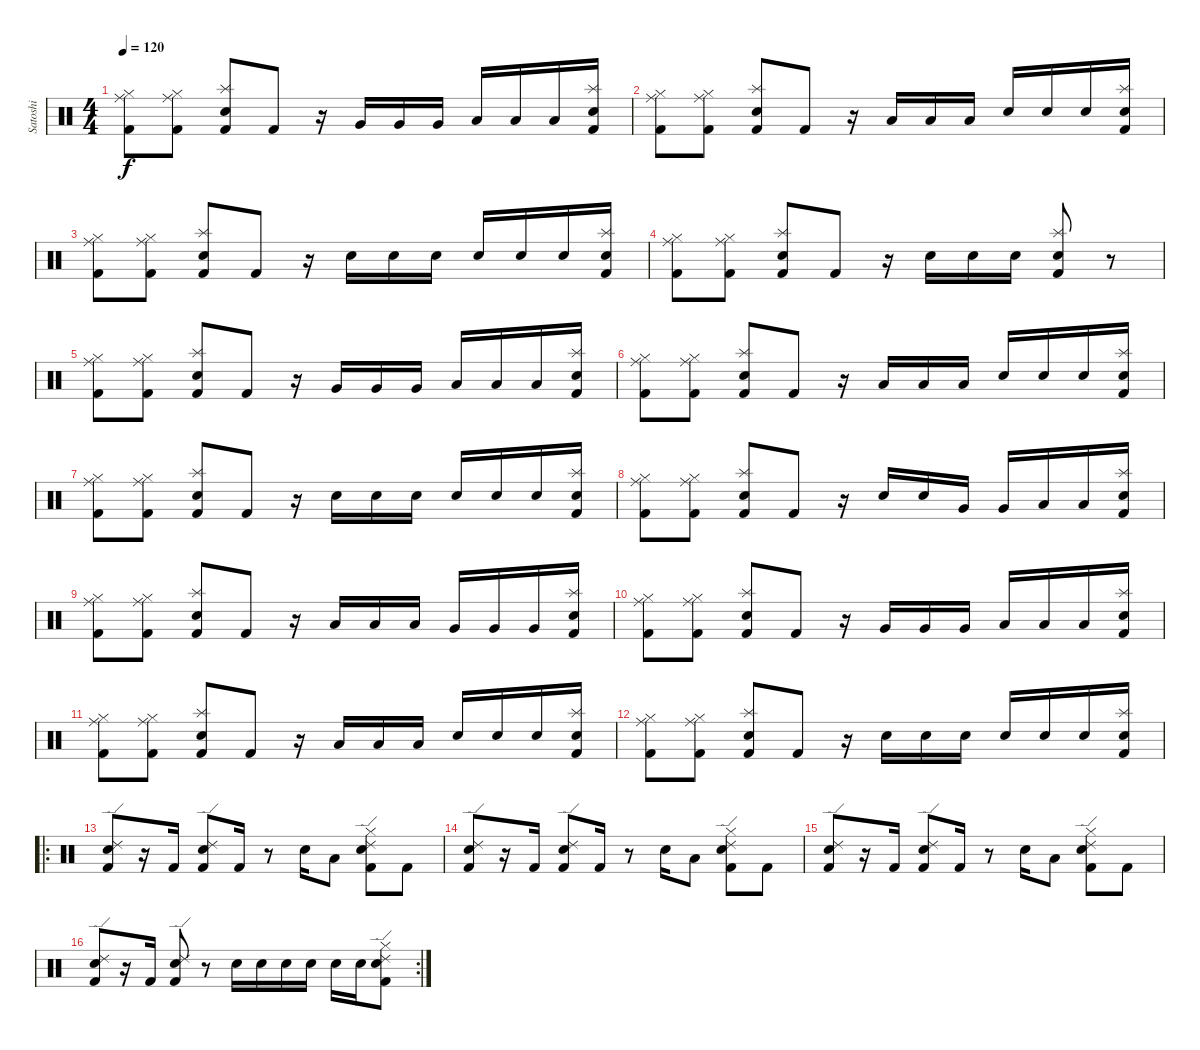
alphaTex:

\track ("Satoshi" "Satoshi") {instrument percussion}
\staff {score}
\articulation defaults
\ts (4 4)
\tempo 120
\clef neutral
\ks c
("Ride (middle)" "Hi-Hat (closed)" "Kick (hit) 2").8{dy f} ("Ride (middle)" "Hi-Hat (closed)" "Kick (hit) 2").8 ("Splash (hit)" "Electric Snare (hit)" "Kick (hit) 2").8 "Kick (hit) 2".8 r.16 "Very Low Tom (hit)".16 "Very Low Tom (hit)".16 "Very Low Tom (hit)".16 "Low Floor Tom (hit)".16 "Low Floor Tom (hit)".16 "Low Floor Tom (hit)".16 ("Splash (hit)" "Electric Snare (hit)" "Kick (hit) 2").16 |
("Ride (middle)" "Hi-Hat (closed)" "Kick (hit) 2").8 ("Ride (middle)" "Hi-Hat (closed)" "Kick (hit) 2").8 ("Splash (hit)" "Electric Snare (hit)" "Kick (hit) 2").8 "Kick (hit) 2".8 r.16 "Low Floor Tom (hit)".16 "Low Floor Tom (hit)".16 "Low Floor Tom (hit)".16 "Electric Snare (hit)".16 "Electric Snare (hit)".16 "Electric Snare (hit)".16 ("Splash (hit)" "Electric Snare (hit)" "Kick (hit) 2").16 |
("Ride (middle)" "Hi-Hat (closed)" "Kick (hit) 2").8 ("Ride (middle)" "Hi-Hat (closed)" "Kick (hit) 2").8 ("Splash (hit)" "Electric Snare (hit)" "Kick (hit) 2").8 "Kick (hit) 2".8 r.16 "Electric Snare (hit)".16 "Electric Snare (hit)".16 "Electric Snare (hit)".16 "Electric Snare (hit)".16 "Electric Snare (hit)".16 "Electric Snare (hit)".16 ("Splash (hit)" "Electric Snare (hit)" "Kick (hit) 2").16 |
("Ride (middle)" "Hi-Hat (closed)" "Kick (hit) 2").8 ("Ride (middle)" "Hi-Hat (closed)" "Kick (hit) 2").8 ("Splash (hit)" "Electric Snare (hit)" "Kick (hit) 2").8 "Kick (hit) 2".8 r.16 "Electric Snare (hit)".16 "Electric Snare (hit)".16 "Electric Snare (hit)".16 ("Splash (hit)" "Electric Snare (hit)" "Kick (hit) 2").8 r.8 |
("Ride (middle)" "Hi-Hat (closed)" "Kick (hit) 2").8 ("Ride (middle)" "Hi-Hat (closed)" "Kick (hit) 2").8 ("Splash (hit)" "Electric Snare (hit)" "Kick (hit) 2").8 "Kick (hit) 2".8 r.16 "Very Low Tom (hit)".16 "Very Low Tom (hit)".16 "Very Low Tom (hit)".16 "Low Floor Tom (hit)".16 "Low Floor Tom (hit)".16 "Low Floor Tom (hit)".16 ("Splash (hit)" "Electric Snare (hit)" "Kick (hit) 2").16 |
("Ride (middle)" "Hi-Hat (closed)" "Kick (hit) 2").8 ("Ride (middle)" "Hi-Hat (closed)" "Kick (hit) 2").8 ("Splash (hit)" "Electric Snare (hit)" "Kick (hit) 2").8 "Kick (hit) 2".8 r.16 "Low Floor Tom (hit)".16 "Low Floor Tom (hit)".16 "Low Floor Tom (hit)".16 "Electric Snare (hit)".16 "Electric Snare (hit)".16 "Electric Snare (hit)".16 ("Splash (hit)" "Electric Snare (hit)" "Kick (hit) 2").16 |
("Ride (middle)" "Hi-Hat (closed)" "Kick (hit) 2").8 ("Ride (middle)" "Hi-Hat (closed)" "Kick (hit) 2").8 ("Splash (hit)" "Electric Snare (hit)" "Kick (hit) 2").8 "Kick (hit) 2".8 r.16 "Electric Snare (hit)".16 "Electric Snare (hit)".16 "Electric Snare (hit)".16 "Electric Snare (hit)".16 "Electric Snare (hit)".16 "Electric Snare (hit)".16 ("Splash (hit)" "Electric Snare (hit)" "Kick (hit) 2").16 |
("Ride (middle)" "Hi-Hat (closed)" "Kick (hit) 2").8 ("Ride (middle)" "Hi-Hat (closed)" "Kick (hit) 2").8 ("Splash (hit)" "Electric Snare (hit)" "Kick (hit) 2").8 "Kick (hit) 2".8 r.16 "Electric Snare (hit)".16 "Electric Snare (hit)".16 "Very Low Tom (hit)".16 "Very Low Tom (hit)".16 "Low Floor Tom (hit)".16 "Low Floor Tom (hit)".16 ("Splash (hit)" "Electric Snare (hit)" "Kick (hit) 2").16 |
("Ride (middle)" "Hi-Hat (closed)" "Kick (hit) 2").8 ("Ride (middle)" "Hi-Hat (closed)" "Kick (hit) 2").8 ("Splash (hit)" "Electric Snare (hit)" "Kick (hit) 2").8 "Kick (hit) 2".8 r.16 "Low Tom (hit)".16 "Low Tom (hit)".16 "Low Tom (hit)".16 "Very Low Tom (hit)".16 "Very Low Tom (hit)".16 "Very Low Tom (hit)".16 ("Splash (hit)" "Electric Snare (hit)" "Kick (hit) 2").16 |
("Ride (middle)" "Hi-Hat (closed)" "Kick (hit) 2").8 ("Ride (middle)" "Hi-Hat (closed)" "Kick (hit) 2").8 ("Splash (hit)" "Electric Snare (hit)" "Kick (hit) 2").8 "Kick (hit) 2".8 r.16 "Very Low Tom (hit)".16 "Very Low Tom (hit)".16 "Very Low Tom (hit)".16 "Low Floor Tom (hit)".16 "Low Floor Tom (hit)".16 "Low Floor Tom (hit)".16 ("Splash (hit)" "Electric Snare (hit)" "Kick (hit) 2").16 |
("Ride (middle)" "Hi-Hat (closed)" "Kick (hit) 2").8 ("Ride (middle)" "Hi-Hat (closed)" "Kick (hit) 2").8 ("Splash (hit)" "Electric Snare (hit)" "Kick (hit) 2").8 "Kick (hit) 2".8 r.16 "Low Floor Tom (hit)".16 "Low Floor Tom (hit)".16 "Low Floor Tom (hit)".16 "Electric Snare (hit)".16 "Electric Snare (hit)".16 "Electric Snare (hit)".16 ("Splash (hit)" "Electric Snare (hit)" "Kick (hit) 2").16 |
("Ride (middle)" "Hi-Hat (closed)" "Kick (hit) 2").8 ("Ride (middle)" "Hi-Hat (closed)" "Kick (hit) 2").8 ("Splash (hit)" "Electric Snare (hit)" "Kick (hit) 2").8 "Kick (hit) 2".8 r.16 "Electric Snare (hit)".16 "Electric Snare (hit)".16 "Electric Snare (hit)".16 "Electric Snare (hit)".16 "Electric Snare (hit)".16 "Electric Snare (hit)".16 ("Splash (hit)" "Electric Snare (hit)" "Kick (hit) 2").16 |
\ro
("Ride (edge) 2" "Electric Snare (hit)" "Kick (hit) 2").8 r.16 "Kick (hit) 2".16 ("Ride (edge) 2" "Electric Snare (hit)" "Kick (hit) 2").8 "Kick (hit) 2".16 r.8 "Electric Snare (hit)".16 "Low Floor Tom (hit)".8 ("Ride (edge) 2" "Hi-Hat (closed)" "Electric Snare (hit)" "Kick (hit) 2").8 "Kick (hit) 2".8 |
("Ride (edge) 2" "Electric Snare (hit)" "Kick (hit) 2").8 r.16 "Kick (hit) 2".16 ("Ride (edge) 2" "Electric Snare (hit)" "Kick (hit) 2").8 "Kick (hit) 2".16 r.8 "Electric Snare (hit)".16 "Low Floor Tom (hit)".8 ("Ride (edge) 2" "Hi-Hat (closed)" "Electric Snare (hit)" "Kick (hit) 2").8 "Kick (hit) 2".8 |
("Ride (edge) 2" "Electric Snare (hit)" "Kick (hit) 2").8 r.16 "Kick (hit) 2".16 ("Ride (edge) 2" "Electric Snare (hit)" "Kick (hit) 2").8 "Kick (hit) 2".16 r.8 "Electric Snare (hit)".16 "Low Floor Tom (hit)".8 ("Ride (edge) 2" "Hi-Hat (closed)" "Electric Snare (hit)" "Kick (hit) 2").8 "Kick (hit) 2".8 |
\rc 2
("Ride (edge) 2" "Electric Snare (hit)" "Kick (hit) 2").8 r.16 "Kick (hit) 2".16 ("Ride (edge) 2" "Electric Snare (hit)" "Kick (hit) 2").8 r.8 "Electric Snare (hit)".16 "Electric Snare (hit)".16 "Electric Snare (hit)".16 "Electric Snare (hit)".16 "Electric Snare (hit)".16 "Electric Snare (hit)".16 ("Ride (edge) 2" "Hi-Hat (closed)" "Electric Snare (hit)" "Kick (hit) 2").8
